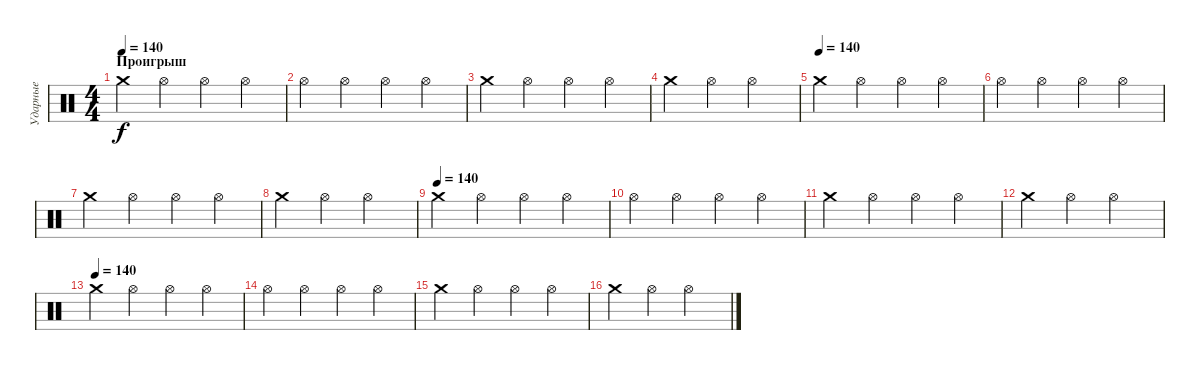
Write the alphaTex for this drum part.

\track ("Ударные" "Ударные") {instrument percussion}
\staff {score}
\articulation defaults
\ts (4 4)
\section ("" "Проигрыш")
\tempo 140
\clef neutral
\ks c "Crash medium (hit)".4{dy f} "Hi-Hat (open)".4 "Hi-Hat (open)".4 "Hi-Hat (open)".4
|
"Hi-Hat (open)".4 "Hi-Hat (open)".4 "Hi-Hat (open)".4 "Hi-Hat (open)".4 |
"Crash medium (hit)".4 "Hi-Hat (open)".4 "Hi-Hat (open)".4 "Hi-Hat (open)".4 |
"Crash medium (hit)".4 "Hi-Hat (open)".4 "Hi-Hat (open)".2 |
\tempo (140)
"Crash medium (hit)".4 "Hi-Hat (open)".4 "Hi-Hat (open)".4 "Hi-Hat (open)".4 |
"Hi-Hat (open)".4 "Hi-Hat (open)".4 "Hi-Hat (open)".4 "Hi-Hat (open)".4 |
"Crash medium (hit)".4 "Hi-Hat (open)".4 "Hi-Hat (open)".4 "Hi-Hat (open)".4 |
"Crash medium (hit)".4 "Hi-Hat (open)".4 "Hi-Hat (open)".2 |
\tempo (140)
"Crash medium (hit)".4 "Hi-Hat (open)".4 "Hi-Hat (open)".4 "Hi-Hat (open)".4 |
"Hi-Hat (open)".4 "Hi-Hat (open)".4 "Hi-Hat (open)".4 "Hi-Hat (open)".4 |
"Crash medium (hit)".4 "Hi-Hat (open)".4 "Hi-Hat (open)".4 "Hi-Hat (open)".4 |
"Crash medium (hit)".4 "Hi-Hat (open)".4 "Hi-Hat (open)".2 |
\tempo (140)
"Crash medium (hit)".4 "Hi-Hat (open)".4 "Hi-Hat (open)".4 "Hi-Hat (open)".4 |
"Hi-Hat (open)".4 "Hi-Hat (open)".4 "Hi-Hat (open)".4 "Hi-Hat (open)".4 |
"Crash medium (hit)".4 "Hi-Hat (open)".4 "Hi-Hat (open)".4 "Hi-Hat (open)".4 |
"Crash medium (hit)".4 "Hi-Hat (open)".4 "Hi-Hat (open)".2
